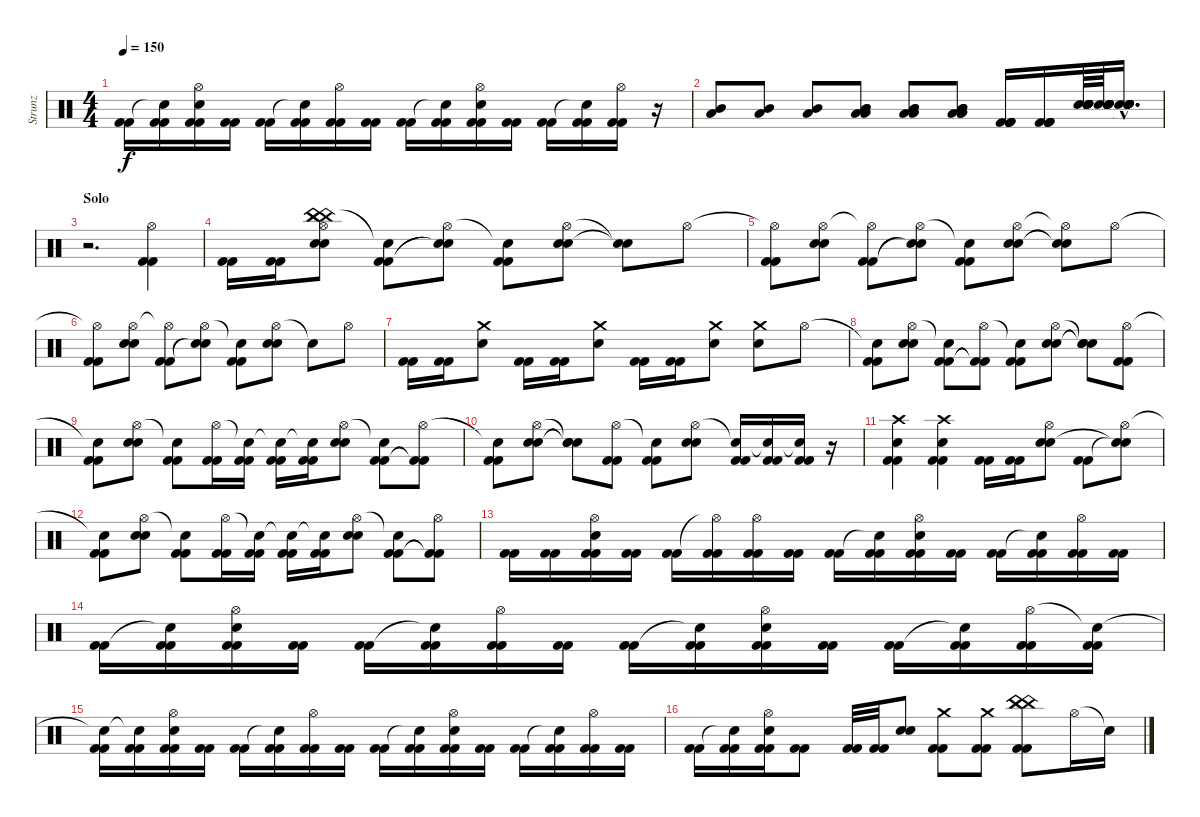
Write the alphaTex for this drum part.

\track ("Strunz" "Strunz") {instrument percussion}
\staff {score}
\articulation defaults
\ts (4 4)
\tempo 150
\clef neutral
\ks c
("Kick (hit) 2" "Kick (hit) 2").16{dy f} ("Snare (hit)"{t} "Kick (hit) 2" "Kick (hit) 2").16 ("Hi-Hat (open)" "Snare (hit) 2" "Kick (hit) 2" "Kick (hit) 2").16 ("Kick (hit) 2" "Kick (hit) 2").16 ("Kick (hit) 2" "Kick (hit) 2").16 ("Snare (hit)"{t} "Kick (hit) 2" "Kick (hit) 2").16 ("Hi-Hat (open)" "Kick (hit) 2" "Kick (hit) 2").16 ("Kick (hit) 2" "Kick (hit) 2").16 ("Kick (hit) 2" "Kick (hit) 2").16 ("Snare (hit)"{t} "Kick (hit) 2" "Kick (hit) 2").16 ("Hi-Hat (open)" "Snare (hit) 2" "Kick (hit) 2" "Kick (hit) 2").16 ("Kick (hit) 2" "Kick (hit) 2").16 ("Kick (hit) 2" "Kick (hit) 2").16 ("Snare (hit)"{t} "Kick (hit) 2" "Kick (hit) 2").16 ("Hi-Hat (open)" "Kick (hit) 2" "Kick (hit) 2").16 r.16 |
("Mid Tom (hit)" "Low Tom (hit)").8 ("Mid Tom (hit)" "Low Tom (hit)").8 ("Mid Tom (hit)" "Low Tom (hit)").8 ("Low Tom (hit)" "Low Tom (hit)" "Mid Tom (hit)" "Mid Tom (hit)").8 ("Low Tom (hit)" "Low Tom (hit)" "Mid Tom (hit)" "Mid Tom (hit)").8 ("Low Tom (hit)" "Low Tom (hit)" "Low Tom (hit)" "Mid Tom (hit)" "Mid Tom (hit)" "Mid Tom (hit)").8 ("Kick (hit) 2" "Kick (hit) 2" "Kick (hit) 2" "Kick (hit) 2").16 ("Kick (hit) 2" "Kick (hit) 2" "Kick (hit) 2" "Kick (hit) 2").16 ("Snare (hit) 2" "Snare (hit) 2" "Snare (hit) 2" "Snare (hit) 2" "Snare (hit) 2" "Snare (hit) 2").64 ("Snare (hit) 2" "Snare (hit) 2" "Snare (hit) 2" "Snare (hit) 2" "Snare (hit) 2" "Snare (hit) 2").64 ("Snare (hit)"{hac t} "Snare (hit)"{hac t} "Snare (hit)"{hac t} "Snare (hit)"{hac t} "Snare (hit)"{hac t} "Snare (hit)"{hac t}).16{d} |
\section ("" "Solo")
r.2{d} ("Hi-Hat (open)" "Kick (hit) 2" "Kick (hit) 2").4 |
("Kick (hit) 2" "Kick (hit) 2").16 ("Kick (hit) 2" "Kick (hit) 2").16 ("China (hit)" "Hi-Hat (open)" "China (hit)" "Snare (hit) 2" "Snare (hit) 2" "China (hit)").8 ("Snare (hit)"{t} "Kick (hit) 2" "Kick (hit) 2").8 ("Hi-Hat (open)" "Snare (hit)"{t} "Snare (hit)"{t}).8 ("Snare (hit)"{t} "Kick (hit) 2" "Kick (hit) 2").8 ("Hi-Hat (open)" "Snare (hit) 2" "Snare (hit) 2").8 ("Snare (hit)"{t} "Snare (hit)"{t}).8 "Hi-Hat (open)".8 |
("Hi-Hat (open)"{t} "Kick (hit) 2" "Kick (hit) 2").8 ("Hi-Hat (open)" "Snare (hit) 2" "Snare (hit) 2").8 ("Hi-Hat (open)"{t} "Kick (hit) 2" "Kick (hit) 2").8 ("Hi-Hat (open)" "Snare (hit)"{t} "Snare (hit)"{t}).8 ("Snare (hit)"{t} "Kick (hit) 2" "Kick (hit) 2").8 ("Hi-Hat (open)" "Snare (hit) 2" "Snare (hit) 2").8 ("Hi-Hat (open)"{t} "Snare (hit)"{t} "Snare (hit)"{t}).8 "Hi-Hat (open)".8 |
("Hi-Hat (open)"{t} "Kick (hit) 2" "Kick (hit) 2").8 ("Hi-Hat (open)" "Snare (hit) 2" "Snare (hit) 2").8 ("Hi-Hat (open)"{t} "Kick (hit) 2" "Kick (hit) 2").8 ("Hi-Hat (open)" "Snare (hit)"{t} "Snare (hit)"{t}).8 ("Snare (hit)"{t} "Kick (hit) 2" "Kick (hit) 2").8 ("Hi-Hat (open)" "Snare (hit) 2" "Snare (hit) 2").8 "Snare (hit)"{t}.8 "Hi-Hat (open)".8 |
("Kick (hit) 2" "Kick (hit) 2").16 ("Kick (hit) 2" "Kick (hit) 2").16 ("Crash medium (hit)" "Snare (hit) 2").8 ("Kick (hit) 2" "Kick (hit) 2").16 ("Kick (hit) 2" "Kick (hit) 2").16 ("Crash medium (hit)" "Snare (hit) 2").8 ("Kick (hit) 2" "Kick (hit) 2").16 ("Kick (hit) 2" "Kick (hit) 2").16 ("Crash medium (hit)" "Snare (hit) 2").8 ("Crash medium (hit)" "Snare (hit) 2").8 "Hi-Hat (open)".8 |
("Snare (hit)"{t} "Kick (hit) 2" "Kick (hit) 2").8 ("Hi-Hat (open)" "Snare (hit) 2" "Snare (hit) 2").8 ("Snare (hit)"{t} "Kick (hit) 2" "Kick (hit) 2").8 ("Hi-Hat (open)" "Kick (hit) 2"{t} "Kick (hit) 2"{t}).8 ("Snare (hit)"{t} "Kick (hit) 2" "Kick (hit) 2").8 ("Hi-Hat (open)" "Snare (hit) 2" "Snare (hit) 2").8 ("Snare (hit)"{t} "Snare (hit) 2"{t} "Snare (hit) 2"{t}).8 ("Hi-Hat (open)" "Kick (hit) 2" "Kick (hit) 2").8 |
("Snare (hit)"{t} "Kick (hit) 2" "Kick (hit) 2").8 ("Hi-Hat (open)" "Snare (hit) 2" "Snare (hit) 2").8 ("Snare (hit)"{t} "Kick (hit) 2" "Kick (hit) 2").8 ("Hi-Hat (open)" "Kick (hit) 2" "Kick (hit) 2").16 ("Snare (hit)"{t} "Kick (hit) 2" "Kick (hit) 2").16 ("Snare (hit)"{t} "Kick (hit) 2" "Kick (hit) 2").16 ("Snare (hit)"{t} "Kick (hit) 2" "Kick (hit) 2").16 ("Hi-Hat (open)" "Snare (hit) 2" "Snare (hit) 2").8 ("Snare (hit)"{t} "Kick (hit) 2" "Kick (hit) 2").8 ("Hi-Hat (open)" "Kick (hit) 2"{t} "Kick (hit) 2"{t}).8 |
("Snare (hit)"{t} "Kick (hit) 2" "Kick (hit) 2").8 ("Hi-Hat (open)" "Snare (hit) 2" "Snare (hit) 2").8 ("Snare (hit)"{t} "Snare (hit) 2"{t} "Snare (hit) 2"{t}).8 ("Hi-Hat (open)" "Kick (hit) 2" "Kick (hit) 2").8 ("Snare (hit)"{t} "Kick (hit) 2" "Kick (hit) 2").8 ("Hi-Hat (open)" "Snare (hit) 2" "Snare (hit) 2").8 ("Snare (hit)"{t} "Kick (hit) 2" "Kick (hit) 2").16 ("Snare (hit)"{t} "Kick (hit) 2" "Kick (hit) 2").16 ("Snare (hit)"{t} "Kick (hit) 2" "Kick (hit) 2").16 r.16 |
("Crash high (hit)" "Snare (hit) 2" "Kick (hit) 2" "Kick (hit) 2").4 ("Crash high (hit)" "Snare (hit) 2" "Kick (hit) 2" "Kick (hit) 2").4 ("Kick (hit) 2" "Kick (hit) 2").16 ("Kick (hit) 2" "Kick (hit) 2").16 ("Hi-Hat (open)" "Snare (hit) 2" "Snare (hit) 2").8 ("Kick (hit) 2" "Kick (hit) 2").8 ("Hi-Hat (open)" "Snare (hit)"{t} "Snare (hit)"{t}).8 |
("Snare (hit)"{t} "Kick (hit) 2" "Kick (hit) 2").8 ("Hi-Hat (open)" "Snare (hit) 2" "Snare (hit) 2").8 ("Snare (hit)"{t} "Kick (hit) 2" "Kick (hit) 2").8 ("Hi-Hat (open)" "Kick (hit) 2" "Kick (hit) 2").16 ("Snare (hit)"{t} "Kick (hit) 2" "Kick (hit) 2").16 ("Snare (hit)"{t} "Kick (hit) 2" "Kick (hit) 2").16 ("Snare (hit)"{t} "Kick (hit) 2" "Kick (hit) 2").16 ("Hi-Hat (open)" "Snare (hit) 2" "Snare (hit) 2").8 ("Snare (hit)"{t} "Kick (hit) 2" "Kick (hit) 2").8 ("Hi-Hat (open)" "Kick (hit) 2"{t} "Kick (hit) 2"{t}).8 |
("Kick (hit) 2" "Kick (hit) 2").16 ("Kick (hit) 2" "Kick (hit) 2").16 ("Hi-Hat (open)" "Snare (hit) 2" "Kick (hit) 2" "Kick (hit) 2").16 ("Kick (hit) 2" "Kick (hit) 2").16 ("Kick (hit) 2" "Kick (hit) 2").16 ("Hi-Hat (open)"{t} "Kick (hit) 2" "Kick (hit) 2").16 ("Hi-Hat (open)" "Kick (hit) 2" "Kick (hit) 2").16 ("Kick (hit) 2" "Kick (hit) 2").16 ("Kick (hit) 2" "Kick (hit) 2").16 ("Snare (hit)"{t} "Kick (hit) 2" "Kick (hit) 2").16 ("Hi-Hat (open)" "Snare (hit) 2" "Kick (hit) 2" "Kick (hit) 2").16 ("Kick (hit) 2" "Kick (hit) 2").16 ("Kick (hit) 2" "Kick (hit) 2").16 ("Snare (hit)"{t} "Kick (hit) 2" "Kick (hit) 2").16 ("Hi-Hat (open)" "Kick (hit) 2" "Kick (hit) 2").16 ("Kick (hit) 2" "Kick (hit) 2").16 |
("Kick (hit) 2" "Kick (hit) 2").16 ("Snare (hit)"{t} "Kick (hit) 2" "Kick (hit) 2").16 ("Hi-Hat (open)" "Snare (hit) 2" "Kick (hit) 2" "Kick (hit) 2").16 ("Kick (hit) 2" "Kick (hit) 2").16 ("Kick (hit) 2" "Kick (hit) 2").16 ("Snare (hit)"{t} "Kick (hit) 2" "Kick (hit) 2").16 ("Hi-Hat (open)" "Kick (hit) 2" "Kick (hit) 2").16 ("Kick (hit) 2" "Kick (hit) 2").16 ("Kick (hit) 2" "Kick (hit) 2").16 ("Snare (hit)"{t} "Kick (hit) 2" "Kick (hit) 2").16 ("Hi-Hat (open)" "Snare (hit) 2" "Kick (hit) 2" "Kick (hit) 2").16 ("Kick (hit) 2" "Kick (hit) 2").16 ("Kick (hit) 2" "Kick (hit) 2").16 ("Snare (hit)"{t} "Kick (hit) 2" "Kick (hit) 2").16 ("Hi-Hat (open)" "Kick (hit) 2" "Kick (hit) 2").16 ("Snare (hit)"{t} "Kick (hit) 2" "Kick (hit) 2").16 |
("Snare (hit)"{t} "Kick (hit) 2" "Kick (hit) 2").16 ("Snare (hit)"{t} "Kick (hit) 2" "Kick (hit) 2").16 ("Hi-Hat (open)" "Snare (hit) 2" "Kick (hit) 2" "Kick (hit) 2").16 ("Kick (hit) 2" "Kick (hit) 2").16 ("Kick (hit) 2" "Kick (hit) 2").16 ("Snare (hit)"{t} "Kick (hit) 2" "Kick (hit) 2").16 ("Hi-Hat (open)" "Kick (hit) 2" "Kick (hit) 2").16 ("Kick (hit) 2" "Kick (hit) 2").16 ("Kick (hit) 2" "Kick (hit) 2").16 ("Snare (hit)"{t} "Kick (hit) 2" "Kick (hit) 2").16 ("Hi-Hat (open)" "Snare (hit) 2" "Kick (hit) 2" "Kick (hit) 2").16 ("Kick (hit) 2" "Kick (hit) 2").16 ("Kick (hit) 2" "Kick (hit) 2").16 ("Snare (hit)"{t} "Kick (hit) 2" "Kick (hit) 2").16 ("Hi-Hat (open)" "Kick (hit) 2" "Kick (hit) 2").16 ("Kick (hit) 2" "Kick (hit) 2").16 |
("Kick (hit) 2" "Kick (hit) 2").16 ("Snare (hit)"{t} "Kick (hit) 2" "Kick (hit) 2").16 ("Hi-Hat (open)" "Snare (hit) 2" "Kick (hit) 2" "Kick (hit) 2").16 ("Kick (hit) 2" "Kick (hit) 2").8 ("Kick (hit) 2" "Kick (hit) 2").32 ("Kick (hit) 2" "Kick (hit) 2").32 ("Snare (hit) 2" "Snare (hit) 2").8 ("Crash medium (hit)" "Kick (hit) 2" "Kick (hit) 2").8 ("Crash medium (hit)" "Kick (hit) 2" "Kick (hit) 2").8 ("China (hit)" "China (hit)" "China (hit)" "Kick (hit) 2" "Kick (hit) 2").8 "Hi-Hat (open)".16 "Snare (hit)"{t}.16
